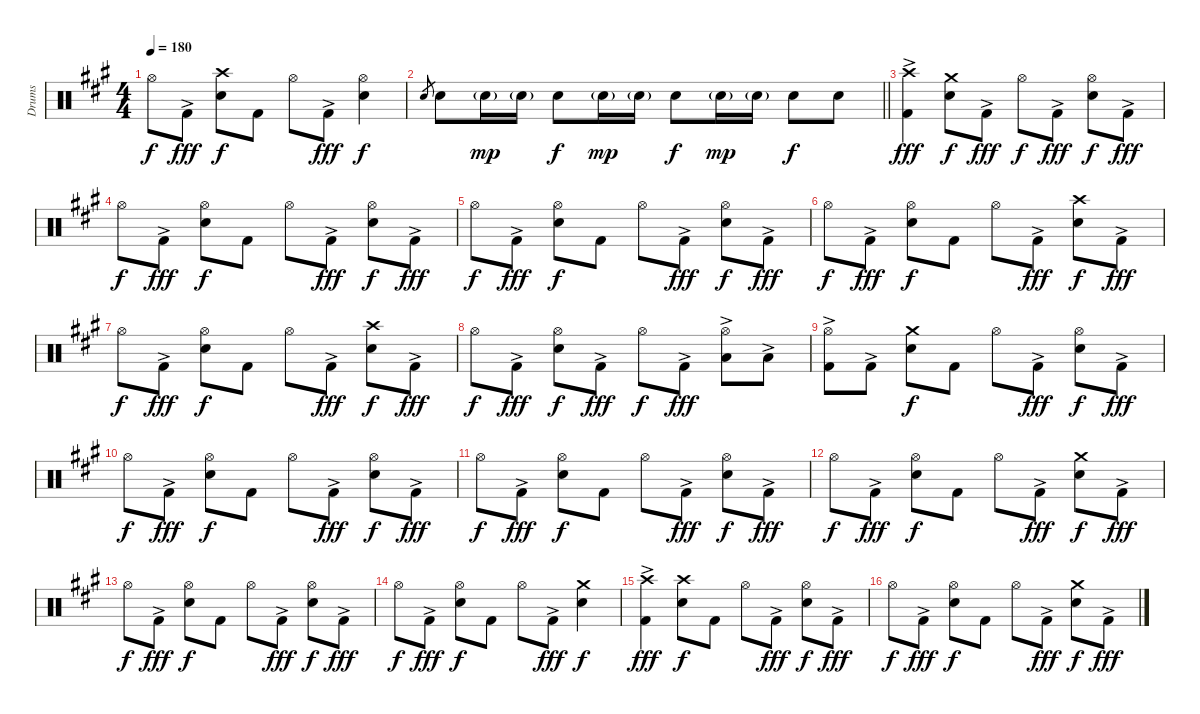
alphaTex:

\track ("Drums" "Drums") {instrument percussion}
\staff {score}
\articulation defaults
\ts (4 4)
\tempo 180
\clef neutral
\ks f#minor "Hi-Hat (open)".8{dy f} "Kick (hit) 2"{ac}.8{dy fff}
("Crash high (hit)" "Snare (hit) 2").8{dy f} "Kick (hit) 2".8 "Hi-Hat (open)".8 "Kick (hit) 2"{ac}.8{dy fff} ("Hi-Hat (open)" "Snare (hit) 2").4{dy f} |
\barLineRight lightlight "Snare (hit) 2".8{gr} "Snare (hit) 2".8 "Snare (hit) 2"{g}.16{dy mp} "Snare (hit) 2"{g}.16 "Snare (hit) 2".8{dy f} "Snare (hit) 2"{g}.16{dy mp} "Snare (hit) 2"{g}.16 "Snare (hit) 2".8{dy f} "Snare (hit) 2"{g}.16{dy mp} "Snare (hit) 2"{g}.16 "Snare (hit) 2".8{dy f} "Snare (hit) 2".8
|
("Crash high (hit)" "Kick (hit) 2"{ac}).4{dy fff} ("Crash medium (hit)" "Snare (hit) 2").8{dy f} "Kick (hit) 2"{ac}.8{dy fff} "Hi-Hat (open)".8{dy f} "Kick (hit) 2"{ac}.8{dy fff} ("Hi-Hat (open)" "Snare (hit) 2").8{dy f} "Kick (hit) 2"{ac}.8{dy fff} |
"Hi-Hat (open)".8{dy f} "Kick (hit) 2"{ac}.8{dy fff} ("Hi-Hat (open)" "Snare (hit) 2").8{dy f} "Kick (hit) 2".8 "Hi-Hat (open)".8 "Kick (hit) 2"{ac}.8{dy fff} ("Hi-Hat (open)" "Snare (hit) 2").8{dy f} "Kick (hit) 2"{ac}.8{dy fff} |
"Hi-Hat (open)".8{dy f} "Kick (hit) 2"{ac}.8{dy fff} ("Hi-Hat (open)" "Snare (hit) 2").8{dy f} "Kick (hit) 2".8 "Hi-Hat (open)".8 "Kick (hit) 2"{ac}.8{dy fff} ("Hi-Hat (open)" "Snare (hit) 2").8{dy f} "Kick (hit) 2"{ac}.8{dy fff} |
"Hi-Hat (open)".8{dy f} "Kick (hit) 2"{ac}.8{dy fff} ("Hi-Hat (open)" "Snare (hit) 2").8{dy f} "Kick (hit) 2".8 "Hi-Hat (open)".8 "Kick (hit) 2"{ac}.8{dy fff} ("Crash high (hit)" "Snare (hit) 2").8{dy f} "Kick (hit) 2"{ac}.8{dy fff} |
"Hi-Hat (open)".8{dy f} "Kick (hit) 2"{ac}.8{dy fff} ("Hi-Hat (open)" "Snare (hit) 2").8{dy f} "Kick (hit) 2".8 "Hi-Hat (open)".8 "Kick (hit) 2"{ac}.8{dy fff} ("Crash high (hit)" "Snare (hit) 2").8{dy f} "Kick (hit) 2"{ac}.8{dy fff} |
"Hi-Hat (open)".8{dy f} "Kick (hit) 2"{ac}.8{dy fff} ("Hi-Hat (open)" "Snare (hit) 2").8{dy f} "Kick (hit) 2"{ac}.8{dy fff} "Hi-Hat (open)".8{dy f} "Kick (hit) 2"{ac}.8{dy fff} ("Hi-Hat (open)" "Low Tom (hit)"{ac}).8 "Low Tom (hit)"{ac}.8 |
("Hi-Hat (open)" "Kick (hit) 2"{ac}).8 "Kick (hit) 2"{ac}.8 ("Crash medium (hit)" "Snare (hit) 2").8{dy f} "Kick (hit) 2".8 "Hi-Hat (open)".8 "Kick (hit) 2"{ac}.8{dy fff} ("Hi-Hat (open)" "Snare (hit) 2").8{dy f} "Kick (hit) 2"{ac}.8{dy fff} |
"Hi-Hat (open)".8{dy f} "Kick (hit) 2"{ac}.8{dy fff} ("Hi-Hat (open)" "Snare (hit) 2").8{dy f} "Kick (hit) 2".8 "Hi-Hat (open)".8 "Kick (hit) 2"{ac}.8{dy fff} ("Hi-Hat (open)" "Snare (hit) 2").8{dy f} "Kick (hit) 2"{ac}.8{dy fff} |
"Hi-Hat (open)".8{dy f} "Kick (hit) 2"{ac}.8{dy fff} ("Hi-Hat (open)" "Snare (hit) 2").8{dy f} "Kick (hit) 2".8 "Hi-Hat (open)".8 "Kick (hit) 2"{ac}.8{dy fff} ("Hi-Hat (open)" "Snare (hit) 2").8{dy f} "Kick (hit) 2"{ac}.8{dy fff} |
"Hi-Hat (open)".8{dy f} "Kick (hit) 2"{ac}.8{dy fff} ("Hi-Hat (open)" "Snare (hit) 2").8{dy f} "Kick (hit) 2".8 "Hi-Hat (open)".8 "Kick (hit) 2"{ac}.8{dy fff} ("Crash medium (hit)" "Snare (hit) 2").8{dy f} "Kick (hit) 2"{ac}.8{dy fff} |
"Hi-Hat (open)".8{dy f} "Kick (hit) 2"{ac}.8{dy fff} ("Hi-Hat (open)" "Snare (hit) 2").8{dy f} "Kick (hit) 2".8 "Hi-Hat (open)".8 "Kick (hit) 2"{ac}.8{dy fff} ("Hi-Hat (open)" "Snare (hit) 2").8{dy f} "Kick (hit) 2"{ac}.8{dy fff} |
"Hi-Hat (open)".8{dy f} "Kick (hit) 2"{ac}.8{dy fff} ("Hi-Hat (open)" "Snare (hit) 2").8{dy f} "Kick (hit) 2".8 "Hi-Hat (open)".8 "Kick (hit) 2"{ac}.8{dy fff} ("Crash medium (hit)" "Snare (hit) 2").4{dy f} |
("Crash high (hit)" "Kick (hit) 2"{ac}).4{dy fff} ("Crash high (hit)" "Snare (hit) 2").8{dy f} "Kick (hit) 2".8 "Hi-Hat (open)".8 "Kick (hit) 2"{ac}.8{dy fff} ("Hi-Hat (open)" "Snare (hit) 2").8{dy f} "Kick (hit) 2"{ac}.8{dy fff} |
"Hi-Hat (open)".8{dy f} "Kick (hit) 2"{ac}.8{dy fff} ("Hi-Hat (open)" "Snare (hit) 2").8{dy f} "Kick (hit) 2".8 "Hi-Hat (open)".8 "Kick (hit) 2"{ac}.8{dy fff} ("Crash medium (hit)" "Snare (hit) 2").8{dy f} "Kick (hit) 2"{ac}.8{dy fff}
